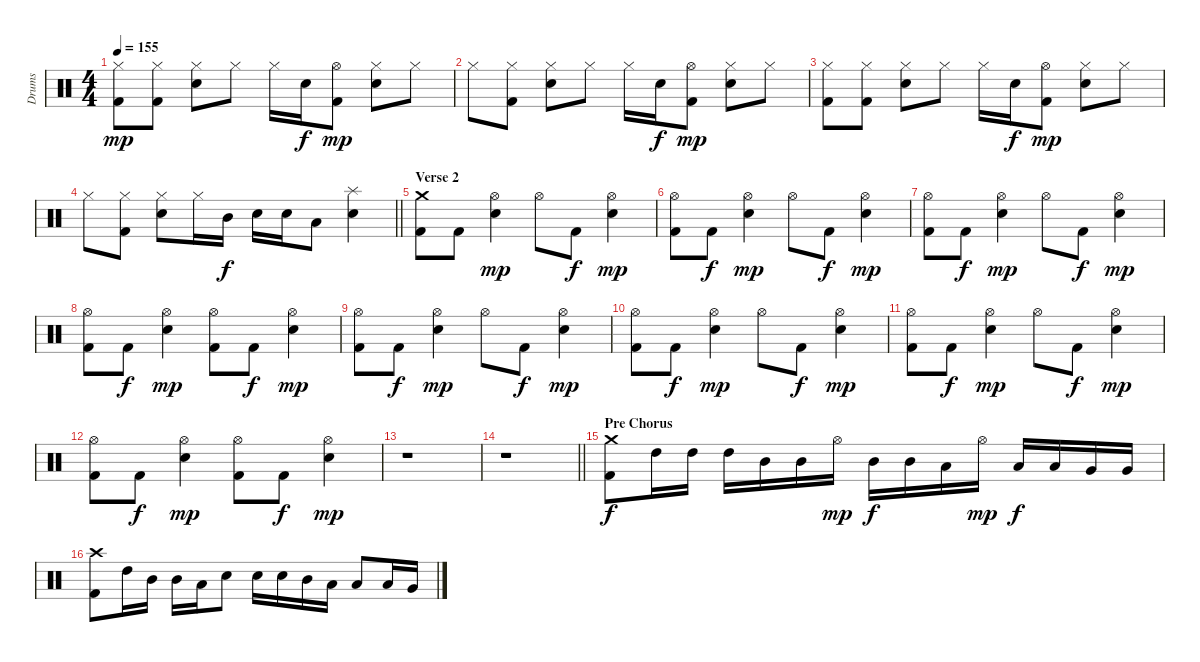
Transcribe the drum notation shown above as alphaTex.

\track ("Drums" "Drums") {instrument percussion}
\staff {score}
\articulation defaults
\ts (4 4)
\tempo 155
\clef neutral
\ks c
("Hi-Hat (closed)" "Kick (hit) 2").8{dy mp} ("Hi-Hat (closed)" "Kick (hit) 2").8 ("Hi-Hat (closed)" "Snare (hit) 2").8 "Hi-Hat (closed)".8 "Hi-Hat (closed)".16 "Snare (hit) 2".16{dy f} ("Hi-Hat (open)" "Kick (hit) 2").8{dy mp} ("Hi-Hat (closed)" "Snare (hit) 2").8 "Hi-Hat (closed)".8 |
"Hi-Hat (closed)".8 ("Hi-Hat (closed)" "Kick (hit) 2").8 ("Hi-Hat (closed)" "Snare (hit) 2").8 "Hi-Hat (closed)".8 "Hi-Hat (closed)".16 "Snare (hit) 2".16{dy f} ("Hi-Hat (open)" "Kick (hit) 2").8{dy mp} ("Hi-Hat (closed)" "Snare (hit) 2").8 "Hi-Hat (closed)".8 |
("Hi-Hat (closed)" "Kick (hit) 2").8 ("Hi-Hat (closed)" "Kick (hit) 2").8 ("Hi-Hat (closed)" "Snare (hit) 2").8 "Hi-Hat (closed)".8 "Hi-Hat (closed)".16 "Snare (hit) 2".16{dy f} ("Hi-Hat (open)" "Kick (hit) 2").8{dy mp} ("Hi-Hat (closed)" "Snare (hit) 2").8 "Hi-Hat (closed)".8 |
\barLineRight lightlight "Hi-Hat (closed)".8
("Hi-Hat (closed)" "Kick (hit) 2").8 ("Hi-Hat (closed)" "Snare (hit) 2").8 "Hi-Hat (closed)".16 "Mid Tom (hit)".16{dy f} "Snare (hit) 2".16 "Snare (hit) 2".16 "Low Tom (hit)".8 ("Splash (hit)" "Snare (hit) 2").4 |
\section ("" "Verse 2")
("Crash medium (hit)" "Kick (hit) 2").8 "Kick (hit) 2".8 ("Hi-Hat (open)" "Snare (hit) 2").4{dy mp} "Hi-Hat (open)".8 "Kick (hit) 2".8{dy f} ("Hi-Hat (open)" "Snare (hit) 2").4{dy mp} |
("Hi-Hat (open)" "Kick (hit) 2").8 "Kick (hit) 2".8{dy f} ("Hi-Hat (open)" "Snare (hit) 2").4{dy mp} "Hi-Hat (open)".8 "Kick (hit) 2".8{dy f} ("Hi-Hat (open)" "Snare (hit) 2").4{dy mp} |
("Hi-Hat (open)" "Kick (hit) 2").8 "Kick (hit) 2".8{dy f} ("Hi-Hat (open)" "Snare (hit) 2").4{dy mp} "Hi-Hat (open)".8 "Kick (hit) 2".8{dy f} ("Hi-Hat (open)" "Snare (hit) 2").4{dy mp} |
("Hi-Hat (open)" "Kick (hit) 2").8 "Kick (hit) 2".8{dy f} ("Hi-Hat (open)" "Snare (hit) 2").4{dy mp} ("Hi-Hat (open)" "Kick (hit) 2").8 "Kick (hit) 2".8{dy f} ("Hi-Hat (open)" "Snare (hit) 2").4{dy mp} |
("Hi-Hat (open)" "Kick (hit) 2").8 "Kick (hit) 2".8{dy f} ("Hi-Hat (open)" "Snare (hit) 2").4{dy mp} "Hi-Hat (open)".8 "Kick (hit) 2".8{dy f} ("Hi-Hat (open)" "Snare (hit) 2").4{dy mp} |
("Hi-Hat (open)" "Kick (hit) 2").8 "Kick (hit) 2".8{dy f} ("Hi-Hat (open)" "Snare (hit) 2").4{dy mp} "Hi-Hat (open)".8 "Kick (hit) 2".8{dy f} ("Hi-Hat (open)" "Snare (hit) 2").4{dy mp} |
("Hi-Hat (open)" "Kick (hit) 2").8 "Kick (hit) 2".8{dy f} ("Hi-Hat (open)" "Snare (hit) 2").4{dy mp} "Hi-Hat (open)".8 "Kick (hit) 2".8{dy f} ("Hi-Hat (open)" "Snare (hit) 2").4{dy mp} |
("Hi-Hat (open)" "Kick (hit) 2").8 "Kick (hit) 2".8{dy f} ("Hi-Hat (open)" "Snare (hit) 2").4{dy mp} ("Hi-Hat (open)" "Kick (hit) 2").8 "Kick (hit) 2".8{dy f} ("Hi-Hat (open)" "Snare (hit) 2").4{dy mp} |
r.1 |
\barLineRight lightlight
r.1 |
\section ("" "Pre Chorus")
("Crash medium (hit)" "Kick (hit) 2").8{dy f} "High Tom (hit)".16 "High Tom (hit)".16 "High Tom (hit)".16 "Mid Tom (hit)".16 "Mid Tom (hit)".16 "Hi-Hat (open)".16{dy mp} "Mid Tom (hit)".16{dy f} "Mid Tom (hit)".16 "Low Tom (hit)".16 "Hi-Hat (open)".16{dy mp} "Low Tom (hit)".16{dy f} "Low Tom (hit)".16 "Very Low Tom (hit)".16 "Very Low Tom (hit)".16 |
("Crash high (hit)" "Kick (hit) 2").8 "High Tom (hit)".16 "Mid Tom (hit)".16 "Mid Tom (hit)".16 "Low Tom (hit)".16 "Snare (hit) 2".8 "Snare (hit) 2".16 "Snare (hit) 2".16 "Mid Tom (hit)".16 "Low Tom (hit)".16 "Low Tom (hit)".8 "Low Tom (hit)".16 "Very Low Tom (hit)".16
